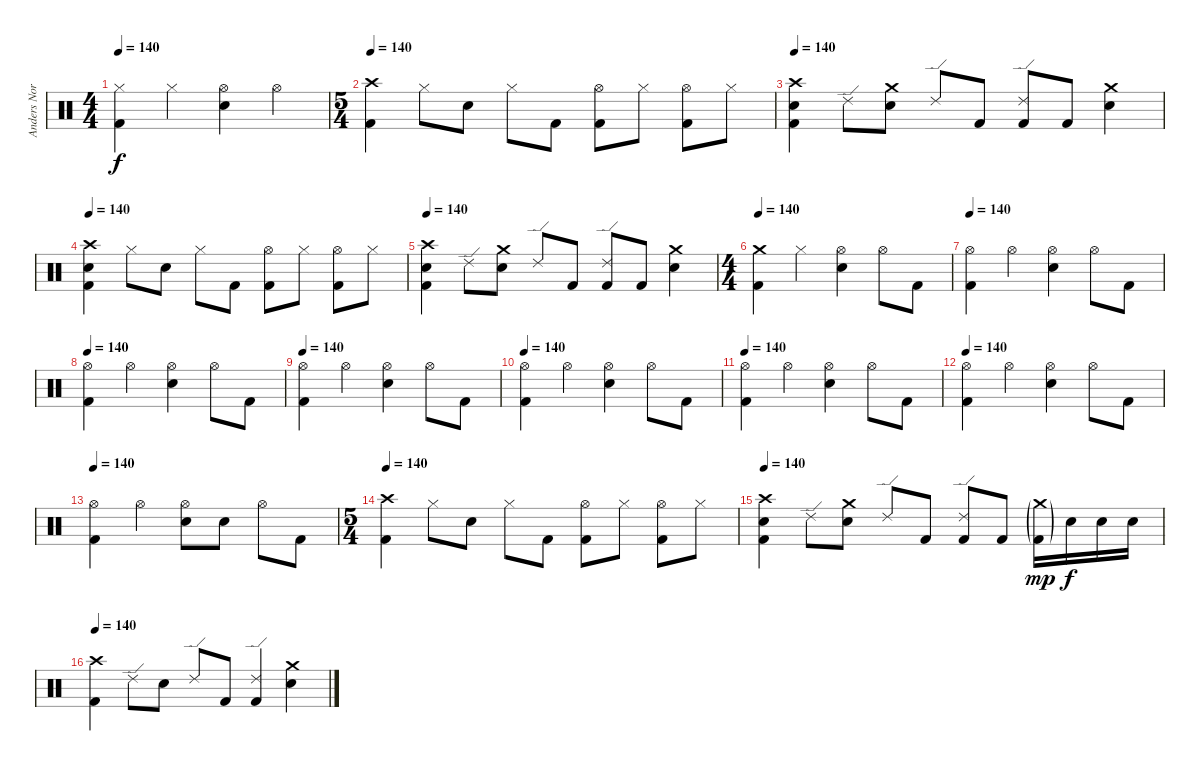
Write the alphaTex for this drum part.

\track ("Anders Nordin" "Anders Nor") {instrument percussion}
\staff {score}
\articulation defaults
\ts (4 4)
\tempo 140
\clef neutral
\ks c
("Kick (hit) 2" "Hi-Hat (closed)").4{dy f} "Hi-Hat (closed)".4 ("Electric Snare (hit)" "Hi-Hat (open)").4 "Hi-Hat (open)".4 |
\ts (5 4)
\tempo 140
("Kick (hit) 2" "Crash high (hit)").4{volume 10} "Hi-Hat (closed)".8 "Electric Snare (hit)".8 "Hi-Hat (closed)".8 "Kick (hit) 2".8 ("Kick (hit) 2" "Hi-Hat (open)").8 "Hi-Hat (closed)".8 ("Kick (hit) 2" "Hi-Hat (open)").8 "Hi-Hat (closed)".8 |
\tempo 140
("Kick (hit) 2" "Electric Snare (hit)" "Crash high (hit)").4{volume 10} "Ride (edge) 2".8 ("Electric Snare (hit)" "Crash medium (hit)").8 "Ride (edge) 2".8 "Kick (hit) 2".8 ("Kick (hit) 2" "Ride (edge) 2").8 "Kick (hit) 2".8 ("Electric Snare (hit)" "Crash medium (hit)").4 |
\tempo 140
("Kick (hit) 2" "Electric Snare (hit)" "Crash high (hit)").4{volume 10} "Hi-Hat (closed)".8 "Electric Snare (hit)".8 "Hi-Hat (closed)".8 "Kick (hit) 2".8 ("Kick (hit) 2" "Hi-Hat (open)").8 "Hi-Hat (closed)".8 ("Kick (hit) 2" "Hi-Hat (open)").8 "Hi-Hat (closed)".8 |
\tempo 140
("Kick (hit) 2" "Electric Snare (hit)" "Crash high (hit)").4{volume 10} "Ride (edge) 2".8 ("Electric Snare (hit)" "Crash medium (hit)").8 "Ride (edge) 2".8 "Kick (hit) 2".8 ("Kick (hit) 2" "Ride (edge) 2").8 "Kick (hit) 2".8 ("Electric Snare (hit)" "Crash medium (hit)").4 |
\ts (4 4)
\tempo 140
("Kick (hit) 2" "Crash medium (hit)").4{volume 10} "Hi-Hat (closed)".4 ("Electric Snare (hit)" "Hi-Hat (open)").4 "Hi-Hat (open)".8 "Kick (hit) 2".8 |
\tempo 140
("Kick (hit) 2" "Hi-Hat (open)").4{volume 10} "Hi-Hat (open)".4 ("Electric Snare (hit)" "Hi-Hat (open)").4 "Hi-Hat (open)".8 "Kick (hit) 2".8 |
\tempo 140
("Kick (hit) 2" "Hi-Hat (open)").4{volume 10} "Hi-Hat (open)".4 ("Electric Snare (hit)" "Hi-Hat (open)").4 "Hi-Hat (open)".8 "Kick (hit) 2".8 |
\tempo 140
("Kick (hit) 2" "Hi-Hat (open)").4{volume 10} "Hi-Hat (open)".4 ("Electric Snare (hit)" "Hi-Hat (open)").4 "Hi-Hat (open)".8 "Kick (hit) 2".8 |
\tempo 140
("Kick (hit) 2" "Hi-Hat (open)").4{volume 10} "Hi-Hat (open)".4 ("Electric Snare (hit)" "Hi-Hat (open)").4 "Hi-Hat (open)".8 "Kick (hit) 2".8 |
\tempo 140
("Kick (hit) 2" "Hi-Hat (open)").4{volume 10} "Hi-Hat (open)".4 ("Electric Snare (hit)" "Hi-Hat (open)").4 "Hi-Hat (open)".8 "Kick (hit) 2".8 |
\tempo 140
("Kick (hit) 2" "Hi-Hat (open)").4{volume 10} "Hi-Hat (open)".4 ("Electric Snare (hit)" "Hi-Hat (open)").4 "Hi-Hat (open)".8 "Kick (hit) 2".8 |
\tempo 140
("Kick (hit) 2" "Hi-Hat (open)").4{volume 10} "Hi-Hat (open)".4 ("Electric Snare (hit)" "Hi-Hat (open)").8 "Electric Snare (hit)".8 "Hi-Hat (open)".8 "Kick (hit) 2".8 |
\ts (5 4)
\tempo 140
("Kick (hit) 2" "Crash high (hit)").4{volume 10} "Hi-Hat (closed)".8 "Electric Snare (hit)".8 "Hi-Hat (closed)".8 "Kick (hit) 2".8 ("Kick (hit) 2" "Hi-Hat (open)").8 "Hi-Hat (closed)".8 ("Kick (hit) 2" "Hi-Hat (open)").8 "Hi-Hat (closed)".8 |
\tempo 140
("Kick (hit) 2" "Electric Snare (hit)" "Crash high (hit)").4{volume 10} "Ride (edge) 2".8 ("Electric Snare (hit)" "Crash medium (hit)").8 "Ride (edge) 2".8 "Kick (hit) 2".8 ("Kick (hit) 2" "Ride (edge) 2").8 "Kick (hit) 2".8 ("Kick (hit) 2"{g} "Crash medium (hit)"{g}).16{dy mp} "Snare (hit)"{x}.16{dy f} "Snare (hit)"{x}.16 "Snare (hit)"{x}.16 |
\tempo 140
("Kick (hit) 2" "Crash high (hit)").4{volume 10} "Ride (edge) 2".8 "Electric Snare (hit)".8 "Ride (edge) 2".8 "Kick (hit) 2".8 ("Kick (hit) 2" "Ride (edge) 2").4 ("Electric Snare (hit)" "Crash medium (hit)").4
